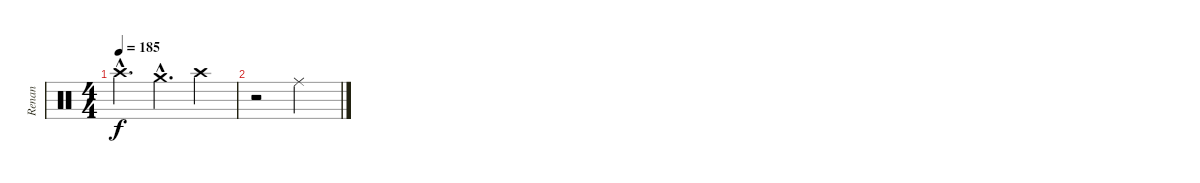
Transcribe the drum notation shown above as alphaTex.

\track ("Renan" "Renan") {instrument percussion}
\staff {score}
\articulation defaults
\ts (4 4)
\tempo 185
\clef neutral
\ks c "Crash high (hit)"{hac}.4{d dy f} "Crash medium (hit)"{hac}.4{d} "Crash high (hit)".4
|
r.2 "Ride (middle)".2
